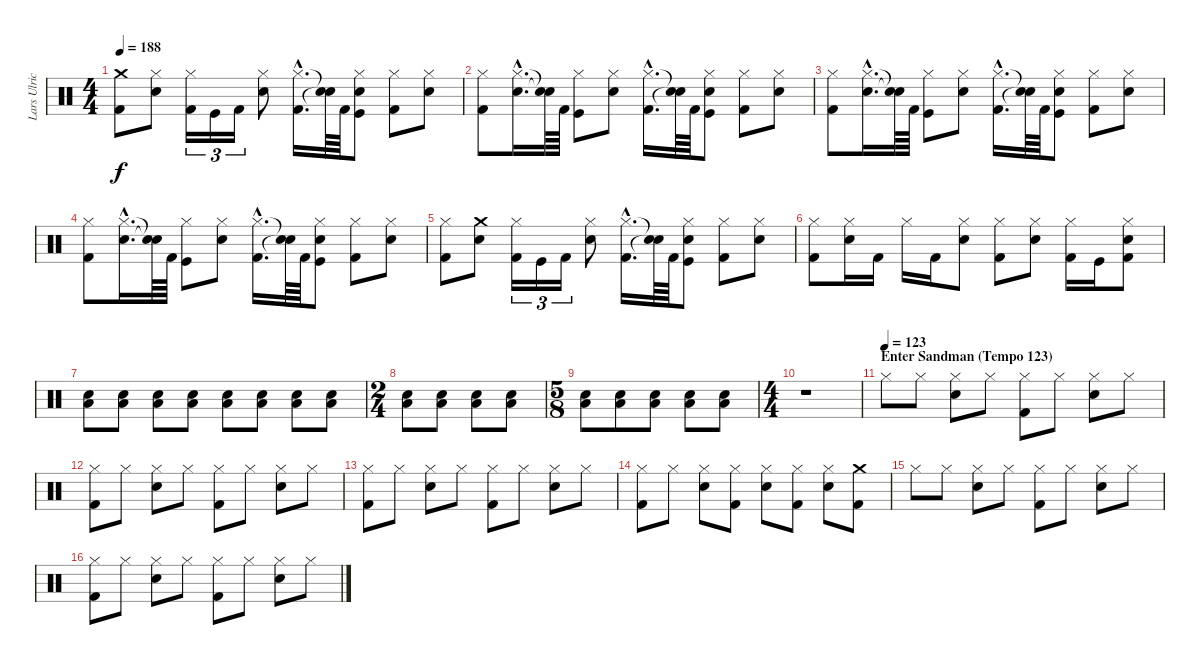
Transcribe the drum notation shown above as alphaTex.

\track ("Lars Ulrich (Drums)" "Lars Ulric") {instrument percussion}
\staff {score}
\articulation defaults
\ts (4 4)
\tempo 188
\clef neutral
\ks c
("Crash medium (hit)" "Kick (hit) 2").8{dy f} ("Snare (hit) 2" "Hi-Hat (closed)").8 ("Kick (hit) 2" "Hi-Hat (closed)").16{tu (3 2)} "Kick (hit)".16{tu (3 2)} "Kick (hit) 2".16{tu (3 2)} ("Snare (hit) 2" "Hi-Hat (closed)").8 ("Kick (hit) 2"{hac} "Hi-Hat (closed)"{hac}).16{d} ("Snare (hit)"{t} "Snare (hit)"{t}).64 "Kick (hit) 2".64 ("Kick (hit)" "Snare (hit) 2" "Hi-Hat (closed)").8 ("Kick (hit) 2" "Hi-Hat (closed)").8 ("Snare (hit) 2" "Hi-Hat (closed)").8 |
("Kick (hit) 2" "Hi-Hat (closed)").8 ("Snare (hit) 2"{hac} "Hi-Hat (closed)"{hac}).16{d} ("Snare (hit)"{t} "Snare (hit)"{t}).64 "Kick (hit) 2".64 ("Kick (hit)" "Hi-Hat (closed)").8 ("Snare (hit) 2" "Hi-Hat (closed)").8 ("Kick (hit) 2"{hac} "Hi-Hat (closed)"{hac}).16{d} ("Snare (hit)"{t} "Snare (hit)"{t}).64 "Kick (hit) 2".64 ("Kick (hit)" "Snare (hit) 2" "Hi-Hat (closed)").8 ("Kick (hit) 2" "Hi-Hat (closed)").8 ("Snare (hit) 2" "Hi-Hat (closed)").8 |
("Kick (hit) 2" "Hi-Hat (closed)").8 ("Snare (hit) 2"{hac} "Hi-Hat (closed)"{hac}).16{d} ("Snare (hit)"{t} "Snare (hit)"{t}).64 "Kick (hit) 2".64 ("Kick (hit)" "Hi-Hat (closed)").8 ("Snare (hit) 2" "Hi-Hat (closed)").8 ("Kick (hit) 2"{hac} "Hi-Hat (closed)"{hac}).16{d} ("Snare (hit)"{t} "Snare (hit)"{t}).64 "Kick (hit) 2".64 ("Kick (hit)" "Snare (hit) 2" "Hi-Hat (closed)").8 ("Kick (hit) 2" "Hi-Hat (closed)").8 ("Snare (hit) 2" "Hi-Hat (closed)").8 |
("Kick (hit) 2" "Hi-Hat (closed)").8 ("Snare (hit) 2"{hac} "Hi-Hat (closed)"{hac}).16{d} ("Snare (hit)"{t} "Snare (hit)"{t}).64 "Kick (hit) 2".64 ("Kick (hit)" "Hi-Hat (closed)").8 ("Snare (hit) 2" "Hi-Hat (closed)").8 ("Kick (hit) 2"{hac} "Hi-Hat (closed)"{hac}).16{d} ("Snare (hit)"{t} "Snare (hit)"{t}).64 "Kick (hit) 2".64 ("Kick (hit)" "Snare (hit) 2" "Hi-Hat (closed)").8 ("Kick (hit) 2" "Hi-Hat (closed)").8 ("Snare (hit) 2" "Hi-Hat (closed)").8 |
("Hi-Hat (closed)" "Kick (hit) 2").8 ("Crash medium (hit)" "Snare (hit) 2").8 ("Kick (hit) 2" "Hi-Hat (closed)").16{tu (3 2)} "Kick (hit)".16{tu (3 2)} "Kick (hit) 2".16{tu (3 2)} ("Snare (hit) 2" "Hi-Hat (closed)").8 ("Kick (hit) 2"{hac} "Hi-Hat (closed)"{hac}).16{d} ("Snare (hit)"{t} "Snare (hit)"{t}).64 "Kick (hit) 2".64 ("Kick (hit)" "Snare (hit) 2" "Hi-Hat (closed)").8 ("Kick (hit) 2" "Hi-Hat (closed)").8 ("Snare (hit) 2" "Hi-Hat (closed)").8 |
("Hi-Hat (closed)" "Kick (hit) 2").8 ("Snare (hit) 2" "Hi-Hat (closed)").16 "Kick (hit) 2".16 "Hi-Hat (closed)".16 "Kick (hit) 2".16 ("Snare (hit) 2" "Hi-Hat (closed)").8 ("Hi-Hat (closed)" "Kick (hit) 2").8 ("Snare (hit) 2" "Hi-Hat (closed)").8 ("Hi-Hat (closed)" "Kick (hit) 2").16 "Kick (hit)".16 ("Kick (hit) 2" "Snare (hit) 2" "Hi-Hat (closed)").8 |
("Snare (hit) 2" "Low Tom (hit)").8 ("Snare (hit) 2" "Low Tom (hit)").8 ("Snare (hit) 2" "Low Tom (hit)").8 ("Snare (hit) 2" "Low Tom (hit)").8 ("Snare (hit) 2" "Low Tom (hit)").8 ("Snare (hit) 2" "Low Tom (hit)").8 ("Snare (hit) 2" "Low Tom (hit)").8 ("Snare (hit) 2" "Low Tom (hit)").8 |
\ts (2 4)
("Snare (hit) 2" "Low Tom (hit)").8 ("Snare (hit) 2" "Low Tom (hit)").8 ("Snare (hit) 2" "Low Tom (hit)").8 ("Snare (hit) 2" "Low Tom (hit)").8 |
\ts (5 8)
("Snare (hit) 2" "Low Tom (hit)").8 ("Snare (hit) 2" "Low Tom (hit)").8 ("Snare (hit) 2" "Low Tom (hit)").8 ("Snare (hit) 2" "Low Tom (hit)").8 ("Snare (hit) 2" "Low Tom (hit)").8 |
\ts (4 4)
r.1 |
\section ("" "Enter Sandman (Tempo 123)")
\tempo (123)
"Hi-Hat (closed)".8 "Hi-Hat (closed)".8 ("Snare (hit) 2" "Hi-Hat (closed)").8 "Hi-Hat (closed)".8 ("Kick (hit) 2" "Hi-Hat (closed)").8 "Hi-Hat (closed)".8 ("Snare (hit) 2" "Hi-Hat (closed)").8 "Hi-Hat (closed)".8 |
("Kick (hit) 2" "Hi-Hat (closed)").8 "Hi-Hat (closed)".8 ("Snare (hit) 2" "Hi-Hat (closed)").8 "Hi-Hat (closed)".8 ("Kick (hit) 2" "Hi-Hat (closed)").8 "Hi-Hat (closed)".8 ("Snare (hit) 2" "Hi-Hat (closed)").8 "Hi-Hat (closed)".8 |
("Kick (hit) 2" "Hi-Hat (closed)").8 "Hi-Hat (closed)".8 ("Snare (hit) 2" "Hi-Hat (closed)").8 "Hi-Hat (closed)".8 ("Kick (hit) 2" "Hi-Hat (closed)").8 "Hi-Hat (closed)".8 ("Snare (hit) 2" "Hi-Hat (closed)").8 "Hi-Hat (closed)".8 |
("Hi-Hat (closed)" "Kick (hit) 2").8 "Hi-Hat (closed)".8 ("Snare (hit) 2" "Hi-Hat (closed)").8 ("Kick (hit) 2" "Hi-Hat (closed)").8 ("Snare (hit) 2" "Hi-Hat (closed)").8 ("Hi-Hat (closed)" "Kick (hit) 2").8 ("Snare (hit) 2" "Hi-Hat (closed)").8 ("Crash medium (hit)" "Kick (hit) 2").8 |
"Hi-Hat (closed)".8 "Hi-Hat (closed)".8 ("Snare (hit) 2" "Hi-Hat (closed)").8 "Hi-Hat (closed)".8 ("Kick (hit) 2" "Hi-Hat (closed)").8 "Hi-Hat (closed)".8 ("Snare (hit) 2" "Hi-Hat (closed)").8 "Hi-Hat (closed)".8 |
("Kick (hit) 2" "Hi-Hat (closed)").8 "Hi-Hat (closed)".8 ("Snare (hit) 2" "Hi-Hat (closed)").8 "Hi-Hat (closed)".8 ("Kick (hit) 2" "Hi-Hat (closed)").8 "Hi-Hat (closed)".8 ("Snare (hit) 2" "Hi-Hat (closed)").8 "Hi-Hat (closed)".8
